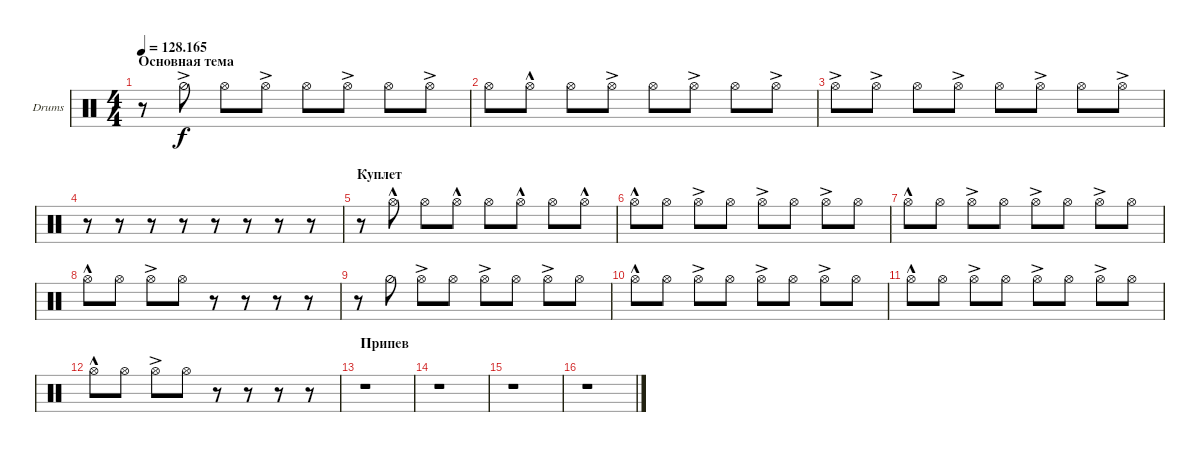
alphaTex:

\defaultSystemsLayout 4
\bracketExtendMode groupsimilarinstruments
\firstSystemTrackNameOrientation horizontal
\otherSystemsTrackNameOrientation horizontal
\track ("Drumkit" "Drums") {instrument percussion}
\staff {score}
\articulation defaults
\ts (4 4)
\section ("" "Основная тема")
\tempo
128.165
\accidentals auto
\clef neutral
\ottava regular
\simile none
\ks c
r.8{dy f} "Hi-Hat (half)"{ac}.8 "Hi-Hat (open)".8 "Hi-Hat (open)"{ac}.8 "Hi-Hat (open)".8 "Hi-Hat (open)"{ac}.8 "Hi-Hat (open)".8 "Hi-Hat (open)"{ac}.8 |
"Hi-Hat (open)".8 "Hi-Hat (open)"{hac}.8 "Hi-Hat (open)".8 "Hi-Hat (open)"{ac}.8 "Hi-Hat (open)".8 "Hi-Hat (open)"{ac}.8 "Hi-Hat (open)".8 "Hi-Hat (open)"{ac}.8 |
"Hi-Hat (open)"{ac}.8 "Hi-Hat (open)"{ac}.8 "Hi-Hat (open)".8 "Hi-Hat (open)"{ac}.8 "Hi-Hat (open)".8 "Hi-Hat (open)"{ac}.8 "Hi-Hat (open)".8 "Hi-Hat (open)"{ac}.8 |
r.8 r.8 r.8 r.8 r.8 r.8 r.8 r.8 |
\section ("" "Куплет")
r.8 "Hi-Hat (open)"{hac}.8 "Hi-Hat (open)".8 "Hi-Hat (open)"{hac}.8 "Hi-Hat (open)".8 "Hi-Hat (open)"{hac}.8 "Hi-Hat (open)".8 "Hi-Hat (open)"{hac}.8 |
"Hi-Hat (open)"{hac}.8 "Hi-Hat (open)".8 "Hi-Hat (open)"{ac}.8 "Hi-Hat (open)".8 "Hi-Hat (open)"{ac}.8 "Hi-Hat (open)".8 "Hi-Hat (open)"{ac}.8 "Hi-Hat (open)".8 |
"Hi-Hat (open)"{hac}.8 "Hi-Hat (open)".8 "Hi-Hat (open)"{ac}.8 "Hi-Hat (open)".8 "Hi-Hat (open)"{ac}.8 "Hi-Hat (open)".8 "Hi-Hat (open)"{ac}.8 "Hi-Hat (open)".8 |
"Hi-Hat (open)"{hac}.8 "Hi-Hat (open)".8 "Hi-Hat (open)"{ac}.8 "Hi-Hat (open)".8 r.8 r.8 r.8 r.8 |
r.8 "Hi-Hat (half)".8 "Hi-Hat (open)"{ac}.8 "Hi-Hat (open)".8 "Hi-Hat (open)"{ac}.8 "Hi-Hat (open)".8 "Hi-Hat (open)"{ac}.8 "Hi-Hat (open)".8 |
"Hi-Hat (open)"{hac}.8 "Hi-Hat (open)".8 "Hi-Hat (open)"{ac}.8 "Hi-Hat (open)".8 "Hi-Hat (open)"{ac}.8 "Hi-Hat (open)".8 "Hi-Hat (open)"{ac}.8 "Hi-Hat (open)".8 |
"Hi-Hat (open)"{hac}.8 "Hi-Hat (open)".8 "Hi-Hat (open)"{ac}.8 "Hi-Hat (open)".8 "Hi-Hat (open)"{ac}.8 "Hi-Hat (open)".8 "Hi-Hat (open)"{ac}.8 "Hi-Hat (open)".8 |
"Hi-Hat (open)"{hac}.8 "Hi-Hat (open)".8 "Hi-Hat (open)"{ac}.8 "Hi-Hat (open)".8 r.8 r.8 r.8 r.8 |
\section ("" "Припев")
r.1 |
r.1 |
r.1 |
r.1
